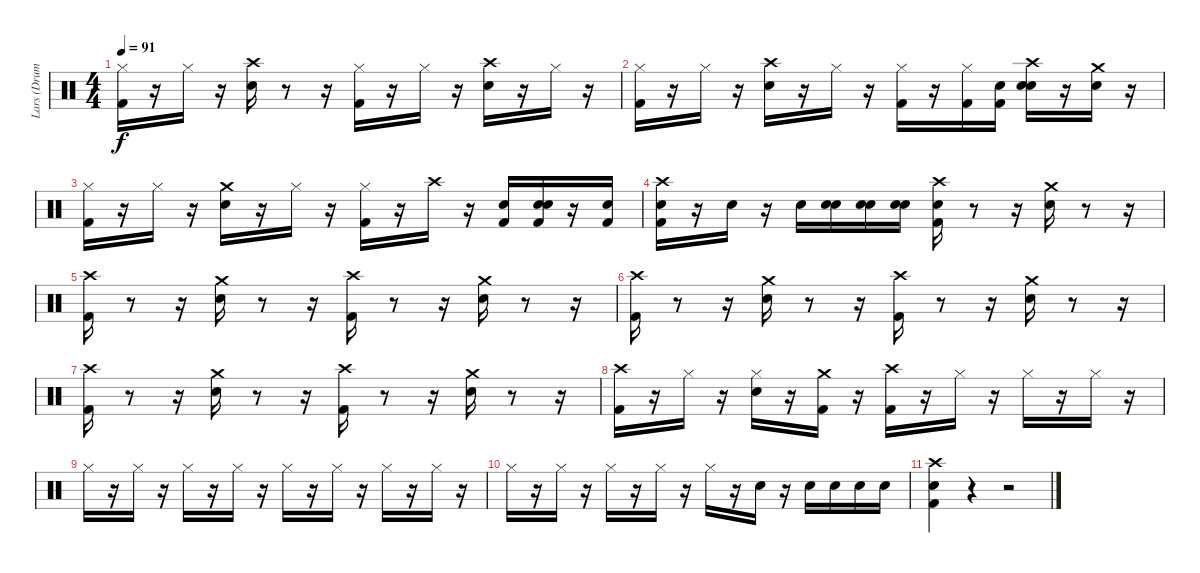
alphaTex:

\track ("Lars (Drums)" "Lars (Drum") {instrument percussion}
\staff {score}
\articulation defaults
\ts (4 4)
\tempo 91
\clef neutral
\ks c
("Kick (hit) 2" "Hi-Hat (closed)").16{dy f} r.16 "Hi-Hat (closed)".16 r.16 ("Snare (hit) 2" "Crash high (hit)").16 r.8 r.16 ("Kick (hit) 2" "Hi-Hat (closed)").16 r.16 "Hi-Hat (closed)".16 r.16 ("Snare (hit) 2" "Crash high (hit)").16 r.16 "Hi-Hat (closed)".16 r.16 |
("Kick (hit) 2" "Hi-Hat (closed)").16 r.16 "Hi-Hat (closed)".16 r.16 ("Snare (hit) 2" "Crash high (hit)").16 r.16 "Hi-Hat (closed)".16 r.16 ("Kick (hit) 2" "Hi-Hat (closed)").16 r.16 ("Kick (hit) 2" "Hi-Hat (closed)").16 ("Snare (hit)" "Kick (hit) 2").16 ("Snare (hit)" "Snare (hit) 2" "Crash high (hit)").16 r.16 ("Snare (hit) 2" "Crash medium (hit)").16 r.16 |
("Kick (hit) 2" "Hi-Hat (closed)").16 r.16 "Hi-Hat (closed)".16 r.16 ("Snare (hit) 2" "Crash medium (hit)").16 r.16 "Hi-Hat (closed)".16 r.16 ("Kick (hit) 2" "Hi-Hat (closed)").16 r.16 "Crash high (hit)".16 r.16 ("Kick (hit) 2" "Snare (hit) 2").16 ("Snare (hit)" "Kick (hit) 2" "Snare (hit) 2").16 r.16 ("Kick (hit) 2" "Snare (hit) 2").16 |
("Snare (hit)" "Kick (hit) 2" "Crash high (hit)").16 r.16 "Snare (hit) 2".16 r.16 "Snare (hit) 2".16 ("Snare (hit)" "Snare (hit) 2").16 ("Snare (hit)" "Snare (hit) 2").16 ("Snare (hit)" "Snare (hit) 2").16 ("Snare (hit)" "Kick (hit) 2" "Crash high (hit)").16 r.8 r.16 ("Snare (hit) 2" "Crash medium (hit)").16 r.8 r.16 |
("Kick (hit) 2" "Crash high (hit)").16 r.8 r.16 ("Snare (hit) 2" "Crash medium (hit)").16 r.8 r.16 ("Kick (hit) 2" "Crash high (hit)").16 r.8 r.16 ("Snare (hit) 2" "Crash medium (hit)").16 r.8 r.16 |
("Kick (hit) 2" "Crash high (hit)").16 r.8 r.16 ("Snare (hit) 2" "Crash medium (hit)").16 r.8 r.16 ("Kick (hit) 2" "Crash high (hit)").16 r.8 r.16 ("Snare (hit) 2" "Crash medium (hit)").16 r.8 r.16 |
("Kick (hit) 2" "Crash high (hit)").16 r.8 r.16 ("Snare (hit) 2" "Crash medium (hit)").16 r.8 r.16 ("Kick (hit) 2" "Crash high (hit)").16 r.8 r.16 ("Snare (hit) 2" "Crash medium (hit)").16 r.8 r.16 |
("Kick (hit) 2" "Crash high (hit)").16 r.16 "Hi-Hat (closed)".16 r.16 ("Snare (hit) 2" "Hi-Hat (closed)").16 r.16 ("Kick (hit) 2" "Crash medium (hit)").16 r.16 ("Kick (hit) 2" "Crash high (hit)").16 r.16 "Hi-Hat (closed)".16 r.16 "Hi-Hat (closed)".16 r.16 "Hi-Hat (closed)".16 r.16 |
"Hi-Hat (closed)".16 r.16 "Hi-Hat (closed)".16 r.16 "Hi-Hat (closed)".16 r.16 "Hi-Hat (closed)".16 r.16 "Hi-Hat (closed)".16 r.16 "Hi-Hat (closed)".16 r.16 "Hi-Hat (closed)".16 r.16 "Hi-Hat (closed)".16 r.16 |
"Hi-Hat (closed)".16 r.16 "Hi-Hat (closed)".16 r.16 "Hi-Hat (closed)".16 r.16 "Hi-Hat (closed)".16 r.16 "Hi-Hat (closed)".16 r.16 "Snare (hit) 2".16 r.16 "Snare (hit) 2".16 "Snare (hit) 2".16 "Snare (hit) 2".16 "Snare (hit) 2".16 |
("Kick (hit) 2" "Snare (hit) 2" "Crash high (hit)").4 r.4 r.2
